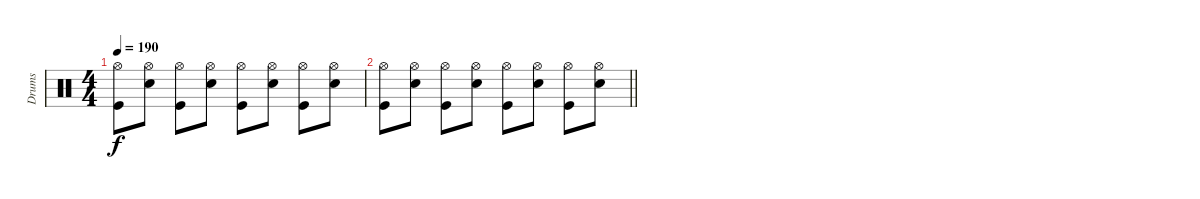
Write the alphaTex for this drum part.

\track ("Drums" "Drums") {instrument percussion}
\staff {score}
\articulation defaults
\ts (4 4)
\tempo 190
\clef neutral
\ks c
("Hi-Hat (open)" "Kick (hit)").8{dy f} ("Hi-Hat (open)" "Snare (hit) 2").8 ("Hi-Hat (open)" "Kick (hit)").8 ("Hi-Hat (open)" "Snare (hit) 2").8 ("Hi-Hat (open)" "Kick (hit)").8 ("Hi-Hat (open)" "Snare (hit) 2").8 ("Hi-Hat (open)" "Kick (hit)").8 ("Hi-Hat (open)" "Snare (hit) 2").8 |
\barLineRight lightlight
("Hi-Hat (open)" "Kick (hit)").8 ("Hi-Hat (open)" "Snare (hit) 2").8 ("Hi-Hat (open)" "Kick (hit)").8 ("Hi-Hat (open)" "Snare (hit) 2").8 ("Hi-Hat (open)" "Kick (hit)").8 ("Hi-Hat (open)" "Snare (hit) 2").8 ("Hi-Hat (open)" "Kick (hit)").8 ("Hi-Hat (open)" "Snare (hit) 2").8
